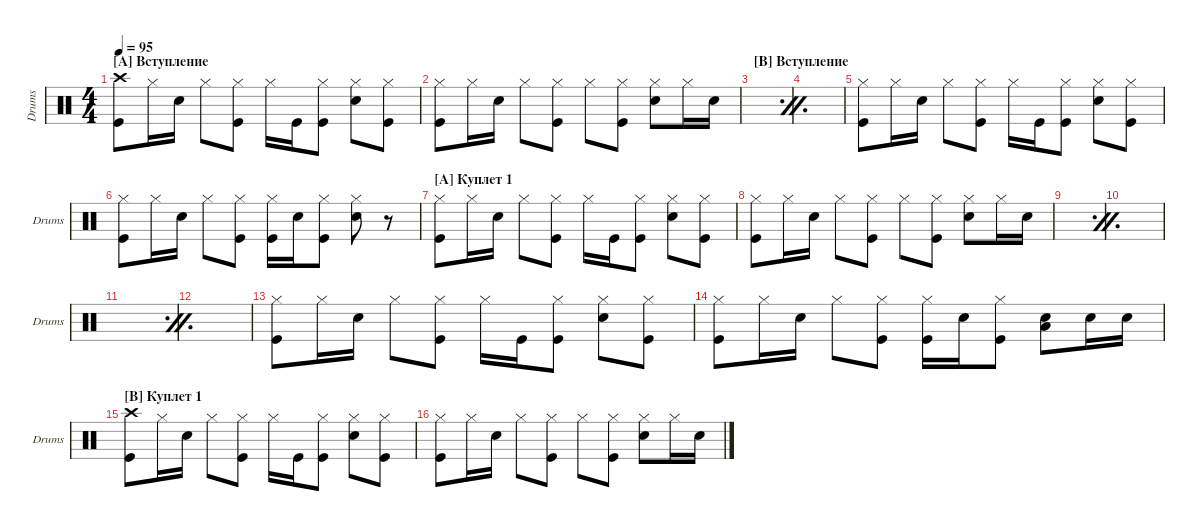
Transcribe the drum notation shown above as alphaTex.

\defaultSystemsLayout 4
\hideDynamics
\bracketExtendMode groupsimilarinstruments
\singleTrackTrackNamePolicy allsystems
\multiTrackTrackNamePolicy allsystems
\otherSystemsTrackNameOrientation horizontal
\track ("Drumkit" "Drums") {instrument percussion}
\staff {score}
\articulation defaults
\ts (4 4)
\section ("A" "Вступление")
\tempo 95
\clef neutral
\ks c
("Kick (hit)" "Crash high (hit)").8{dy ff} "Hi-Hat (closed)".16 "Snare (hit) 2".16 "Hi-Hat (closed)".8 ("Hi-Hat (closed)" "Kick (hit)").8 "Hi-Hat (closed)".16 "Kick (hit)".16 ("Hi-Hat (closed)" "Kick (hit)").8 ("Hi-Hat (closed)" "Snare (hit) 2").8 ("Hi-Hat (closed)" "Kick (hit)").8 |
("Hi-Hat (closed)" "Kick (hit)").8 "Hi-Hat (closed)".16 "Snare (hit) 2".16 "Hi-Hat (closed)".8 ("Hi-Hat (closed)" "Kick (hit)").8 "Hi-Hat (closed)".8 ("Hi-Hat (closed)" "Kick (hit)").8 ("Hi-Hat (closed)" "Snare (hit) 2").8 "Hi-Hat (closed)".16 "Snare (hit) 2".16 |
\section ("B" "Вступление")
\simile firstofdouble
|
\simile secondofdouble
|
\simile none
("Hi-Hat (closed)" "Kick (hit)").8 "Hi-Hat (closed)".16 "Snare (hit) 2".16 "Hi-Hat (closed)".8 ("Hi-Hat (closed)" "Kick (hit)").8 "Hi-Hat (closed)".16 "Kick (hit)".16 ("Hi-Hat (closed)" "Kick (hit)").8 ("Hi-Hat (closed)" "Snare (hit) 2").8 ("Hi-Hat (closed)" "Kick (hit)").8 |
("Hi-Hat (closed)" "Kick (hit)").8 "Hi-Hat (closed)".16 "Snare (hit) 2".16 "Hi-Hat (closed)".8 ("Hi-Hat (closed)" "Kick (hit)").8 ("Hi-Hat (closed)" "Kick (hit)").16 "Snare (hit) 2".16 ("Hi-Hat (closed)" "Kick (hit)").8 ("Hi-Hat (closed)" "Snare (hit) 2").8 r.8 |
\section ("A" "Куплет 1")
("Hi-Hat (closed)" "Kick (hit)").8 "Hi-Hat (closed)".16 "Snare (hit) 2".16 "Hi-Hat (closed)".8 ("Hi-Hat (closed)" "Kick (hit)").8 "Hi-Hat (closed)".16 "Kick (hit)".16 ("Hi-Hat (closed)" "Kick (hit)").8 ("Hi-Hat (closed)" "Snare (hit) 2").8 ("Hi-Hat (closed)" "Kick (hit)").8 |
("Hi-Hat (closed)" "Kick (hit)").8 "Hi-Hat (closed)".16 "Snare (hit) 2".16 "Hi-Hat (closed)".8 ("Hi-Hat (closed)" "Kick (hit)").8 "Hi-Hat (closed)".8 ("Hi-Hat (closed)" "Kick (hit)").8 ("Hi-Hat (closed)" "Snare (hit) 2").8 "Hi-Hat (closed)".16 "Snare (hit) 2".16 |
\simile firstofdouble
|
\simile secondofdouble
|
\simile firstofdouble
|
\simile secondofdouble
|
\simile none
("Hi-Hat (closed)" "Kick (hit)").8 "Hi-Hat (closed)".16 "Snare (hit) 2".16 "Hi-Hat (closed)".8 ("Hi-Hat (closed)" "Kick (hit)").8 "Hi-Hat (closed)".16 "Kick (hit)".16 ("Hi-Hat (closed)" "Kick (hit)").8 ("Hi-Hat (closed)" "Snare (hit) 2").8 ("Hi-Hat (closed)" "Kick (hit)").8 |
("Hi-Hat (closed)" "Kick (hit)").8 "Hi-Hat (closed)".16 "Snare (hit) 2".16 "Hi-Hat (closed)".8 ("Hi-Hat (closed)" "Kick (hit)").8 ("Hi-Hat (closed)" "Kick (hit)").16 "Snare (hit) 2".16 ("Hi-Hat (closed)" "Kick (hit)").8 ("Snare (hit) 2" "Low Tom (hit)").8 "Snare (hit) 2".16 "Snare (hit) 2".16 |
\section ("B" "Куплет 1")
("Kick (hit)" "Crash high (hit)").8 "Hi-Hat (closed)".16 "Snare (hit) 2".16 "Hi-Hat (closed)".8 ("Hi-Hat (closed)" "Kick (hit)").8 "Hi-Hat (closed)".16 "Kick (hit)".16 ("Hi-Hat (closed)" "Kick (hit)").8 ("Hi-Hat (closed)" "Snare (hit) 2").8 ("Hi-Hat (closed)" "Kick (hit)").8 |
("Hi-Hat (closed)" "Kick (hit)").8 "Hi-Hat (closed)".16 "Snare (hit) 2".16 "Hi-Hat (closed)".8 ("Hi-Hat (closed)" "Kick (hit)").8 "Hi-Hat (closed)".8 ("Hi-Hat (closed)" "Kick (hit)").8 ("Hi-Hat (closed)" "Snare (hit) 2").8 "Hi-Hat (closed)".16 "Snare (hit) 2".16
